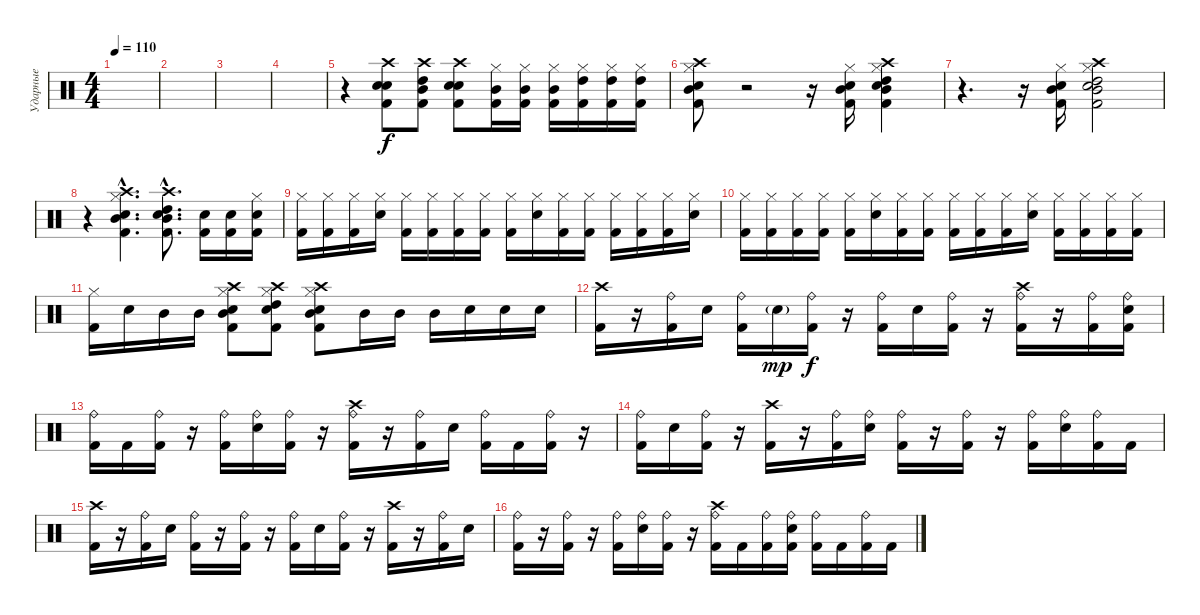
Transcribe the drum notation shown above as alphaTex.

\track ("Ударные" "Ударные") {instrument percussion}
\staff {score}
\articulation defaults
\ts (4 4)
\tempo 110
\clef neutral
\ks c
|
|
|
|
r.4 ("Crash high (hit)" "Electric Snare (hit)" "Electric Snare (hit)" "Kick (hit) 2").8 ("Crash high (hit)" "High Tom (hit)" "Mid Tom (hit)" "Kick (hit) 2").8 ("Crash high (hit)" "Electric Snare (hit)" "Electric Snare (hit)" "Kick (hit) 2").8 ("Hi-Hat (closed)" "Mid Tom (hit)" "Kick (hit) 2").16 ("Hi-Hat (closed)" "Mid Tom (hit)" "Kick (hit) 2").16 ("Hi-Hat (closed)" "Mid Tom (hit)" "Kick (hit) 2").16 ("Hi-Hat (closed)" "High Tom (hit)" "Kick (hit) 2").16 ("Hi-Hat (closed)" "High Tom (hit)" "Kick (hit) 2").16 ("Hi-Hat (closed)" "High Tom (hit)" "Kick (hit) 2").16 |
("Crash high (hit)" "Hi-Hat (closed)" "Electric Snare (hit)" "Mid Tom (hit)" "Kick (hit) 2").8 r.2 r.16 ("Hi-Hat (closed)" "Electric Snare (hit)" "Mid Tom (hit)" "Kick (hit) 2").16 ("Crash high (hit)" "Hi-Hat (closed)" "Electric Snare (hit)" "High Tom (hit)" "Mid Tom (hit)" "Kick (hit) 2").4 |
r.4{d} r.16 ("Hi-Hat (closed)" "Electric Snare (hit)" "Mid Tom (hit)" "Kick (hit) 2").16 ("Crash high (hit)" "Hi-Hat (closed)" "Electric Snare (hit)" "Mid Tom (hit)" "High Tom (hit)" "Kick (hit) 2").2 |
r.4 ("Crash high (hit)"{hac} "Hi-Hat (closed)"{hac} "Mid Tom (hit)"{hac} "Electric Snare (hit)"{hac} "Kick (hit) 2"{hac}).4{d} ("Crash high (hit)"{hac} "High Tom (hit)"{hac} "Mid Tom (hit)"{hac} "Electric Snare (hit)"{hac} "Kick (hit) 2"{hac}).8{d} ("Electric Snare (hit)" "Kick (hit) 2").16 ("Electric Snare (hit)" "Kick (hit) 2").16 ("Hi-Hat (closed)" "Electric Snare (hit)" "Kick (hit) 2").16 |
("Hi-Hat (closed)" "Kick (hit) 2").16 ("Hi-Hat (closed)" "Kick (hit) 2").16 ("Hi-Hat (closed)" "Kick (hit) 2").16 ("Hi-Hat (closed)" "Electric Snare (hit)").16 ("Hi-Hat (closed)" "Kick (hit) 2").16 ("Hi-Hat (closed)" "Kick (hit) 2").16 ("Hi-Hat (closed)" "Kick (hit) 2").16 ("Hi-Hat (closed)" "Kick (hit) 2").16 ("Hi-Hat (closed)" "Kick (hit) 2").16 ("Hi-Hat (closed)" "Electric Snare (hit)").16 ("Hi-Hat (closed)" "Kick (hit) 2").16 ("Hi-Hat (closed)" "Kick (hit) 2").16 ("Hi-Hat (closed)" "Kick (hit) 2").16 ("Hi-Hat (closed)" "Kick (hit) 2").16 ("Hi-Hat (closed)" "Kick (hit) 2").16 ("Hi-Hat (closed)" "Electric Snare (hit)").16 |
("Hi-Hat (closed)" "Kick (hit) 2").16 ("Hi-Hat (closed)" "Kick (hit) 2").16 ("Hi-Hat (closed)" "Kick (hit) 2").16 ("Hi-Hat (closed)" "Kick (hit) 2").16 ("Hi-Hat (closed)" "Kick (hit) 2").16 ("Hi-Hat (closed)" "Electric Snare (hit)").16 ("Hi-Hat (closed)" "Kick (hit) 2").16 ("Hi-Hat (closed)" "Kick (hit) 2").16 ("Hi-Hat (closed)" "Kick (hit) 2").16 ("Hi-Hat (closed)" "Kick (hit) 2").16 ("Hi-Hat (closed)" "Kick (hit) 2").16 ("Hi-Hat (closed)" "Electric Snare (hit)").16 ("Hi-Hat (closed)" "Kick (hit) 2").16 ("Hi-Hat (closed)" "Kick (hit) 2").16 ("Hi-Hat (closed)" "Kick (hit) 2").16 ("Hi-Hat (closed)" "Kick (hit) 2").16 |
("Hi-Hat (closed)" "Kick (hit) 2").16 "Electric Snare (hit)".16 "Mid Tom (hit)".16 "Mid Tom (hit)".16 ("Crash high (hit)" "Hi-Hat (closed)" "Electric Snare (hit)" "Mid Tom (hit)" "Kick (hit) 2").8 ("Crash high (hit)" "Hi-Hat (closed)" "Electric Snare (hit)" "High Tom (hit)" "Kick (hit) 2").8 ("Crash high (hit)" "Hi-Hat (closed)" "Electric Snare (hit)" "Mid Tom (hit)" "Kick (hit) 2").8 "Mid Tom (hit)".16 "Mid Tom (hit)".16 "Mid Tom (hit)".16 "Electric Snare (hit)".16 "Electric Snare (hit)".16 "Electric Snare (hit)".16 |
("Crash high (hit)" "Kick (hit) 2").16 r.16 ("Ride (bell)" "Kick (hit) 2").16 "Electric Snare (hit)".16 ("Ride (bell)" "Kick (hit) 2").16 "Electric Snare (hit)"{g}.16{dy mp} ("Ride (bell)" "Kick (hit) 2").16{dy f} r.16 ("Ride (bell)" "Kick (hit) 2").16 "Electric Snare (hit)".16 ("Ride (bell)" "Kick (hit) 2").16 r.16 ("Crash high (hit)" "Ride (bell)" "Kick (hit) 2").16 r.16 ("Ride (bell)" "Kick (hit) 2").16 ("Ride (bell)" "Electric Snare (hit)" "Kick (hit) 2").16 |
("Ride (bell)" "Kick (hit) 2").16 "Kick (hit) 2".16 ("Ride (bell)" "Kick (hit) 2").16 r.16 ("Ride (bell)" "Kick (hit) 2").16 ("Ride (bell)" "Electric Snare (hit)").16 ("Ride (bell)" "Kick (hit) 2").16 r.16 ("Crash high (hit)" "Ride (bell)" "Kick (hit) 2").16 r.16 ("Ride (bell)" "Kick (hit) 2").16 "Electric Snare (hit)".16 ("Ride (bell)" "Kick (hit) 2").16 "Kick (hit) 2".16 ("Ride (bell)" "Kick (hit) 2").16 r.16 |
("Ride (bell)" "Kick (hit) 2").16 "Electric Snare (hit)".16 ("Ride (bell)" "Kick (hit) 2").16 r.16 ("Crash high (hit)" "Kick (hit) 2").16 r.16 ("Ride (bell)" "Kick (hit) 2").16 ("Ride (bell)" "Electric Snare (hit)").16 ("Ride (bell)" "Kick (hit) 2").16 r.16 ("Ride (bell)" "Kick (hit) 2").16 r.16 ("Ride (bell)" "Kick (hit) 2").16 ("Ride (bell)" "Electric Snare (hit)").16 ("Ride (bell)" "Kick (hit) 2").16 "Kick (hit) 2".16 |
("Crash high (hit)" "Kick (hit) 2").16 r.16 ("Ride (bell)" "Kick (hit) 2").16 "Electric Snare (hit)".16 ("Ride (bell)" "Kick (hit) 2").16 r.16 ("Ride (bell)" "Kick (hit) 2").16 r.16 ("Ride (bell)" "Kick (hit) 2").16 "Electric Snare (hit)".16 ("Ride (bell)" "Kick (hit) 2").16 r.16 ("Crash high (hit)" "Kick (hit) 2").16 r.16 ("Ride (bell)" "Kick (hit) 2").16 "Electric Snare (hit)".16 |
("Ride (bell)" "Kick (hit) 2").16 r.16 ("Ride (bell)" "Kick (hit) 2").16 r.16 ("Ride (bell)" "Kick (hit) 2").16 ("Ride (bell)" "Electric Snare (hit)").16 ("Ride (bell)" "Kick (hit) 2").16 r.16 ("Crash high (hit)" "Ride (bell)" "Kick (hit) 2").16 "Kick (hit) 2".16 ("Ride (bell)" "Kick (hit) 2").16 ("Ride (bell)" "Electric Snare (hit)" "Kick (hit) 2").16 ("Ride (bell)" "Kick (hit) 2").16 "Kick (hit) 2".16 ("Ride (bell)" "Kick (hit) 2").16 "Kick (hit) 2".16
